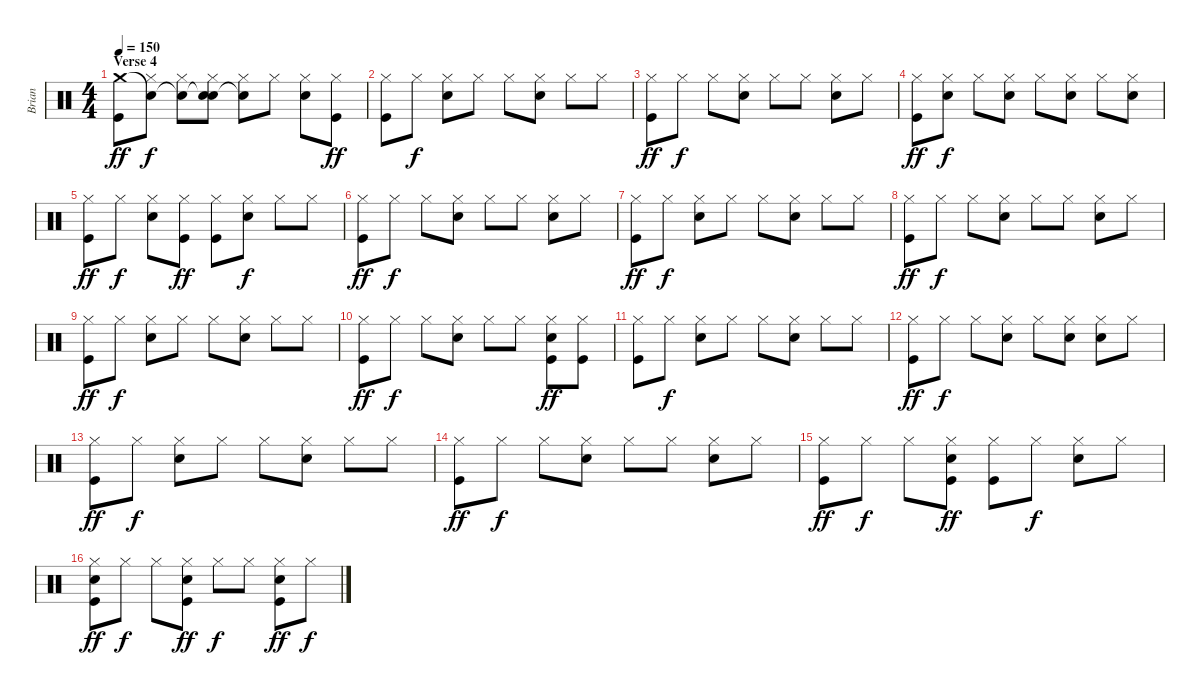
\track ("Brian" "Brian") {instrument percussion}
\staff {score}
\articulation defaults
\ts (4 4)
\section ("" "Verse 4")
\tempo 150
\clef neutral
\ks c
("Crash medium (hit)" "Kick (hit)").8{dy ff} ("Snare (hit)"{t} "Hi-Hat (closed)").8{dy f} ("Snare (hit)"{t} "Hi-Hat (closed)").8 ("Snare (hit)"{t} "Hi-Hat (closed)" "Snare (hit) 2").8 ("Snare (hit)"{t} "Hi-Hat (closed)").8 "Hi-Hat (closed)".8 ("Hi-Hat (closed)" "Snare (hit) 2").8 ("Hi-Hat (closed)" "Kick (hit)").8{dy ff} |
("Hi-Hat (closed)" "Kick (hit)").8 "Hi-Hat (closed)".8{dy f} ("Hi-Hat (closed)" "Snare (hit) 2").8 "Hi-Hat (closed)".8 "Hi-Hat (closed)".8 ("Hi-Hat (closed)" "Snare (hit) 2").8 "Hi-Hat (closed)".8 "Hi-Hat (closed)".8 |
("Hi-Hat (closed)" "Kick (hit)").8{dy ff} "Hi-Hat (closed)".8{dy f} "Hi-Hat (closed)".8 ("Hi-Hat (closed)" "Snare (hit) 2").8 "Hi-Hat (closed)".8 "Hi-Hat (closed)".8 ("Hi-Hat (closed)" "Snare (hit) 2").8 "Hi-Hat (closed)".8 |
("Hi-Hat (closed)" "Kick (hit)").8{dy ff} ("Hi-Hat (closed)" "Snare (hit) 2").8{dy f} "Hi-Hat (closed)".8 ("Hi-Hat (closed)" "Snare (hit) 2").8 "Hi-Hat (closed)".8 ("Hi-Hat (closed)" "Snare (hit) 2").8 "Hi-Hat (closed)".8 ("Hi-Hat (closed)" "Snare (hit) 2").8 |
("Hi-Hat (closed)" "Kick (hit)").8{dy ff} "Hi-Hat (closed)".8{dy f} ("Hi-Hat (closed)" "Snare (hit) 2").8 ("Hi-Hat (closed)" "Kick (hit)").8{dy ff} ("Hi-Hat (closed)" "Kick (hit)").8 ("Hi-Hat (closed)" "Snare (hit) 2").8{dy f} "Hi-Hat (closed)".8 "Hi-Hat (closed)".8 |
("Hi-Hat (closed)" "Kick (hit)").8{dy ff} "Hi-Hat (closed)".8{dy f} "Hi-Hat (closed)".8 ("Hi-Hat (closed)" "Snare (hit) 2").8 "Hi-Hat (closed)".8 "Hi-Hat (closed)".8 ("Hi-Hat (closed)" "Snare (hit) 2").8 "Hi-Hat (closed)".8 |
("Hi-Hat (closed)" "Kick (hit)").8{dy ff} "Hi-Hat (closed)".8{dy f} ("Hi-Hat (closed)" "Snare (hit) 2").8 "Hi-Hat (closed)".8 "Hi-Hat (closed)".8 ("Hi-Hat (closed)" "Snare (hit) 2").8 "Hi-Hat (closed)".8 "Hi-Hat (closed)".8 |
("Hi-Hat (closed)" "Kick (hit)").8{dy ff} "Hi-Hat (closed)".8{dy f} "Hi-Hat (closed)".8 ("Hi-Hat (closed)" "Snare (hit) 2").8 "Hi-Hat (closed)".8 "Hi-Hat (closed)".8 ("Hi-Hat (closed)" "Snare (hit) 2").8 "Hi-Hat (closed)".8 |
("Hi-Hat (closed)" "Kick (hit)").8{dy ff} "Hi-Hat (closed)".8{dy f} ("Hi-Hat (closed)" "Snare (hit) 2").8 "Hi-Hat (closed)".8 "Hi-Hat (closed)".8 ("Hi-Hat (closed)" "Snare (hit) 2").8 "Hi-Hat (closed)".8 "Hi-Hat (closed)".8 |
("Hi-Hat (closed)" "Kick (hit)").8{dy ff} "Hi-Hat (closed)".8{dy f} "Hi-Hat (closed)".8 ("Hi-Hat (closed)" "Snare (hit) 2").8 "Hi-Hat (closed)".8 "Hi-Hat (closed)".8 ("Hi-Hat (closed)" "Snare (hit) 2" "Kick (hit)").8{dy ff} ("Hi-Hat (closed)" "Kick (hit)").8 |
("Hi-Hat (closed)" "Kick (hit)").8 "Hi-Hat (closed)".8{dy f} ("Hi-Hat (closed)" "Snare (hit) 2").8 "Hi-Hat (closed)".8 "Hi-Hat (closed)".8 ("Hi-Hat (closed)" "Snare (hit) 2").8 "Hi-Hat (closed)".8 "Hi-Hat (closed)".8 |
("Hi-Hat (closed)" "Kick (hit)").8{dy ff} "Hi-Hat (closed)".8{dy f} "Hi-Hat (closed)".8 ("Hi-Hat (closed)" "Snare (hit) 2").8 "Hi-Hat (closed)".8 ("Hi-Hat (closed)" "Snare (hit) 2").8 ("Hi-Hat (closed)" "Snare (hit) 2").8 "Hi-Hat (closed)".8 |
("Hi-Hat (closed)" "Kick (hit)").8{dy ff} "Hi-Hat (closed)".8{dy f} ("Hi-Hat (closed)" "Snare (hit) 2").8 "Hi-Hat (closed)".8 "Hi-Hat (closed)".8 ("Hi-Hat (closed)" "Snare (hit) 2").8 "Hi-Hat (closed)".8 "Hi-Hat (closed)".8 |
("Hi-Hat (closed)" "Kick (hit)").8{dy ff} "Hi-Hat (closed)".8{dy f} "Hi-Hat (closed)".8 ("Hi-Hat (closed)" "Snare (hit) 2").8 "Hi-Hat (closed)".8 "Hi-Hat (closed)".8 ("Hi-Hat (closed)" "Snare (hit) 2").8 "Hi-Hat (closed)".8 |
("Hi-Hat (closed)" "Kick (hit)").8{dy ff} "Hi-Hat (closed)".8{dy f} "Hi-Hat (closed)".8 ("Hi-Hat (closed)" "Snare (hit) 2" "Kick (hit)").8{dy ff} ("Hi-Hat (closed)" "Kick (hit)").8 "Hi-Hat (closed)".8{dy f} ("Hi-Hat (closed)" "Snare (hit) 2").8 "Hi-Hat (closed)".8 |
("Hi-Hat (closed)" "Snare (hit) 2" "Kick (hit)").8{dy ff} "Hi-Hat (closed)".8{dy f} "Hi-Hat (closed)".8 ("Hi-Hat (closed)" "Snare (hit) 2" "Kick (hit)").8{dy ff} "Hi-Hat (closed)".8{dy f} "Hi-Hat (closed)".8 ("Hi-Hat (closed)" "Snare (hit) 2" "Kick (hit)").8{dy ff} "Hi-Hat (closed)".8{dy f}
